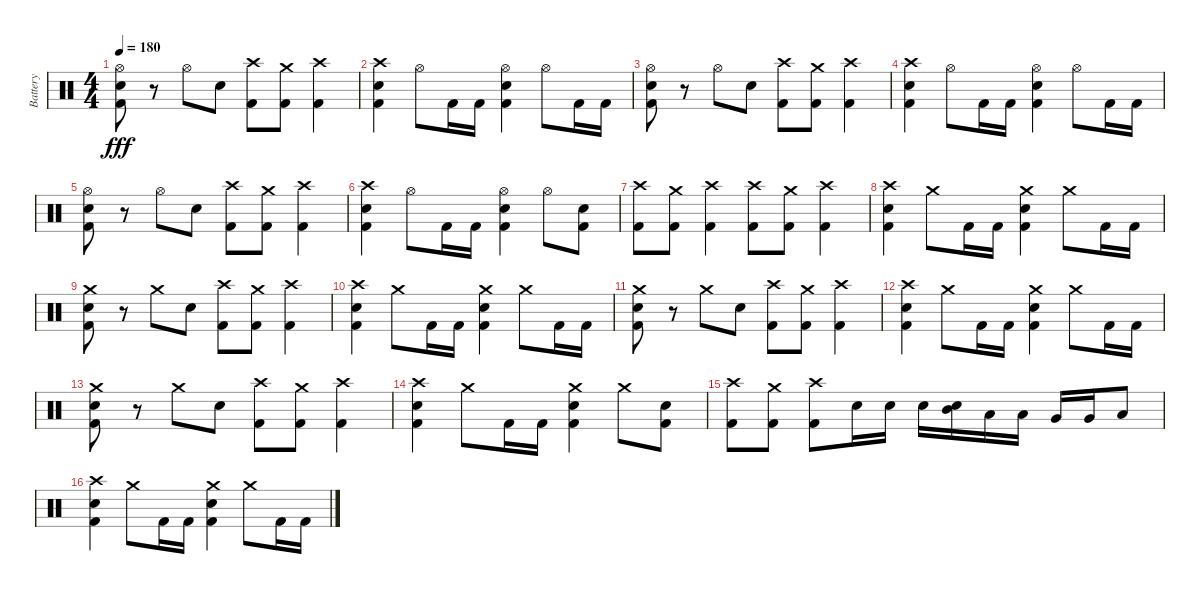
\track ("Battery" "Battery") {instrument percussion}
\staff {score}
\articulation defaults
\ts (4 4)
\tempo 180
\clef neutral
\ks c
("Hi-Hat (open)" "Electric Snare (hit)" "Kick (hit) 2").8{dy fff} r.8 "Hi-Hat (open)".8 "Electric Snare (hit)".8 ("Crash high (hit)" "Kick (hit) 2").8 ("Crash medium (hit)" "Kick (hit) 2").8 ("Crash high (hit)" "Kick (hit) 2").4 |
("Crash high (hit)" "Electric Snare (hit)" "Kick (hit) 2").4 "Hi-Hat (open)".8 "Kick (hit) 2".16 "Kick (hit) 2".16 ("Hi-Hat (open)" "Electric Snare (hit)" "Kick (hit) 2").4 "Hi-Hat (open)".8 "Kick (hit) 2".16 "Kick (hit) 2".16 |
("Hi-Hat (open)" "Electric Snare (hit)" "Kick (hit) 2").8 r.8 "Hi-Hat (open)".8 "Electric Snare (hit)".8 ("Crash high (hit)" "Kick (hit) 2").8 ("Crash medium (hit)" "Kick (hit) 2").8 ("Crash high (hit)" "Kick (hit) 2").4 |
("Crash high (hit)" "Electric Snare (hit)" "Kick (hit) 2").4 "Hi-Hat (open)".8 "Kick (hit) 2".16 "Kick (hit) 2".16 ("Hi-Hat (open)" "Electric Snare (hit)" "Kick (hit) 2").4 "Hi-Hat (open)".8 "Kick (hit) 2".16 "Kick (hit) 2".16 |
("Hi-Hat (open)" "Electric Snare (hit)" "Kick (hit) 2").8 r.8 "Hi-Hat (open)".8 "Electric Snare (hit)".8 ("Crash high (hit)" "Kick (hit) 2").8 ("Crash medium (hit)" "Kick (hit) 2").8 ("Crash high (hit)" "Kick (hit) 2").4 |
("Crash high (hit)" "Electric Snare (hit)" "Kick (hit) 2").4 "Hi-Hat (open)".8 "Kick (hit) 2".16 "Kick (hit) 2".16 ("Hi-Hat (open)" "Electric Snare (hit)" "Kick (hit) 2").4 "Hi-Hat (open)".8 ("Electric Snare (hit)" "Kick (hit) 2").8 |
("Crash high (hit)" "Kick (hit) 2").8 ("Crash medium (hit)" "Kick (hit) 2").8 ("Crash high (hit)" "Kick (hit) 2").4 ("Crash high (hit)" "Kick (hit) 2").8 ("Crash medium (hit)" "Kick (hit) 2").8 ("Crash high (hit)" "Kick (hit) 2").4 |
("Crash high (hit)" "Electric Snare (hit)" "Kick (hit) 2").4 "Crash medium (hit)".8 "Kick (hit) 2".16 "Kick (hit) 2".16 ("Crash medium (hit)" "Electric Snare (hit)" "Kick (hit) 2").4 "Crash medium (hit)".8 "Kick (hit) 2".16 "Kick (hit) 2".16 |
("Crash medium (hit)" "Electric Snare (hit)" "Kick (hit) 2").8 r.8 "Crash medium (hit)".8 "Electric Snare (hit)".8 ("Crash high (hit)" "Kick (hit) 2").8 ("Crash medium (hit)" "Kick (hit) 2").8 ("Crash high (hit)" "Kick (hit) 2").4 |
("Crash high (hit)" "Electric Snare (hit)" "Kick (hit) 2").4 "Crash medium (hit)".8 "Kick (hit) 2".16 "Kick (hit) 2".16 ("Crash medium (hit)" "Electric Snare (hit)" "Kick (hit) 2").4 "Crash medium (hit)".8 "Kick (hit) 2".16 "Kick (hit) 2".16 |
("Crash medium (hit)" "Electric Snare (hit)" "Kick (hit) 2").8 r.8 "Crash medium (hit)".8 "Electric Snare (hit)".8 ("Crash high (hit)" "Kick (hit) 2").8 ("Crash medium (hit)" "Kick (hit) 2").8 ("Crash high (hit)" "Kick (hit) 2").4 |
("Crash high (hit)" "Electric Snare (hit)" "Kick (hit) 2").4 "Crash medium (hit)".8 "Kick (hit) 2".16 "Kick (hit) 2".16 ("Crash medium (hit)" "Electric Snare (hit)" "Kick (hit) 2").4 "Crash medium (hit)".8 "Kick (hit) 2".16 "Kick (hit) 2".16 |
("Crash medium (hit)" "Electric Snare (hit)" "Kick (hit) 2").8 r.8 "Crash medium (hit)".8 "Electric Snare (hit)".8 ("Crash high (hit)" "Kick (hit) 2").8 ("Crash medium (hit)" "Kick (hit) 2").8 ("Crash high (hit)" "Kick (hit) 2").4 |
("Crash high (hit)" "Electric Snare (hit)" "Kick (hit) 2").4 "Crash medium (hit)".8 "Kick (hit) 2".16 "Kick (hit) 2".16 ("Crash medium (hit)" "Electric Snare (hit)" "Kick (hit) 2").4 "Crash medium (hit)".8 ("Electric Snare (hit)" "Kick (hit) 2").8 |
("Crash high (hit)" "Kick (hit) 2").8 ("Crash medium (hit)" "Kick (hit) 2").8 ("Crash high (hit)" "Kick (hit) 2").8 "Electric Snare (hit)".16 "Electric Snare (hit)".16 "Electric Snare (hit)".16 ("Mid Tom (hit)" "Electric Snare (hit)").16 "Low Tom (hit)".16 "Low Tom (hit)".16 "Very Low Tom (hit)".16 "Very Low Tom (hit)".16 "Low Floor Tom (hit)".8 |
("Crash high (hit)" "Electric Snare (hit)" "Kick (hit) 2").4 "Crash medium (hit)".8 "Kick (hit) 2".16 "Kick (hit) 2".16 ("Crash medium (hit)" "Electric Snare (hit)" "Kick (hit) 2").4 "Crash medium (hit)".8 "Kick (hit) 2".16 "Kick (hit) 2".16
